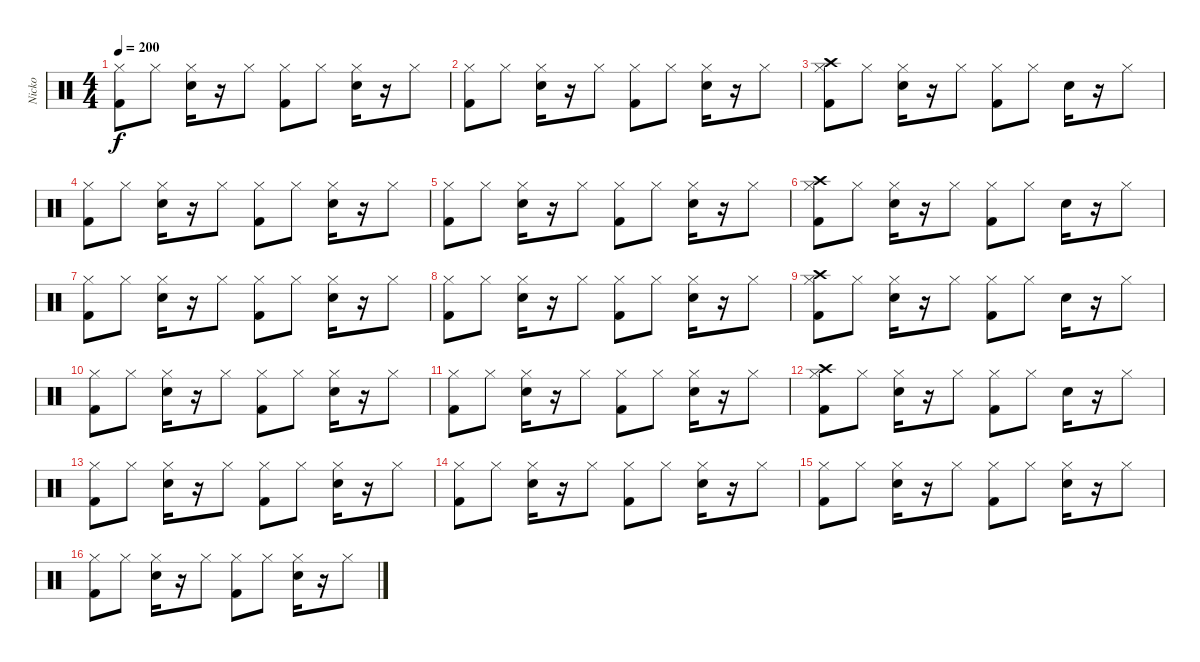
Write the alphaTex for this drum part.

\track ("Nicko" "Nicko") {instrument percussion}
\staff {score}
\articulation defaults
\ts (4 4)
\tempo 200
\clef neutral
\ks c
("Kick (hit) 2" "Hi-Hat (closed)").8{dy f} "Hi-Hat (closed)".8 ("Snare (hit) 2" "Hi-Hat (closed)").16 r.16 "Hi-Hat (closed)".8 ("Kick (hit) 2" "Hi-Hat (closed)").8 "Hi-Hat (closed)".8 ("Snare (hit) 2" "Hi-Hat (closed)").16 r.16 "Hi-Hat (closed)".8 |
("Kick (hit) 2" "Hi-Hat (closed)").8 "Hi-Hat (closed)".8 ("Snare (hit) 2" "Hi-Hat (closed)").16 r.16 "Hi-Hat (closed)".8 ("Kick (hit) 2" "Hi-Hat (closed)").8 "Hi-Hat (closed)".8 ("Snare (hit) 2" "Hi-Hat (closed)").16 r.16 "Hi-Hat (closed)".8 |
("Kick (hit) 2" "Hi-Hat (closed)" "Crash high (hit)").8 "Hi-Hat (closed)".8 ("Snare (hit) 2" "Hi-Hat (closed)").16 r.16 "Hi-Hat (closed)".8 ("Kick (hit) 2" "Hi-Hat (closed)").8 "Hi-Hat (closed)".8 "Snare (hit) 2".16 r.16 "Hi-Hat (closed)".8 |
("Kick (hit) 2" "Hi-Hat (closed)").8 "Hi-Hat (closed)".8 ("Snare (hit) 2" "Hi-Hat (closed)").16 r.16 "Hi-Hat (closed)".8 ("Kick (hit) 2" "Hi-Hat (closed)").8 "Hi-Hat (closed)".8 ("Snare (hit) 2" "Hi-Hat (closed)").16 r.16 "Hi-Hat (closed)".8 |
("Kick (hit) 2" "Hi-Hat (closed)").8 "Hi-Hat (closed)".8 ("Snare (hit) 2" "Hi-Hat (closed)").16 r.16 "Hi-Hat (closed)".8 ("Kick (hit) 2" "Hi-Hat (closed)").8 "Hi-Hat (closed)".8 ("Snare (hit) 2" "Hi-Hat (closed)").16 r.16 "Hi-Hat (closed)".8 |
("Kick (hit) 2" "Hi-Hat (closed)" "Crash high (hit)").8 "Hi-Hat (closed)".8 ("Snare (hit) 2" "Hi-Hat (closed)").16 r.16 "Hi-Hat (closed)".8 ("Kick (hit) 2" "Hi-Hat (closed)").8 "Hi-Hat (closed)".8 "Snare (hit) 2".16 r.16 "Hi-Hat (closed)".8 |
("Kick (hit) 2" "Hi-Hat (closed)").8 "Hi-Hat (closed)".8 ("Snare (hit) 2" "Hi-Hat (closed)").16 r.16 "Hi-Hat (closed)".8 ("Kick (hit) 2" "Hi-Hat (closed)").8 "Hi-Hat (closed)".8 ("Snare (hit) 2" "Hi-Hat (closed)").16 r.16 "Hi-Hat (closed)".8 |
("Kick (hit) 2" "Hi-Hat (closed)").8 "Hi-Hat (closed)".8 ("Snare (hit) 2" "Hi-Hat (closed)").16 r.16 "Hi-Hat (closed)".8 ("Kick (hit) 2" "Hi-Hat (closed)").8 "Hi-Hat (closed)".8 ("Snare (hit) 2" "Hi-Hat (closed)").16 r.16 "Hi-Hat (closed)".8 |
("Kick (hit) 2" "Hi-Hat (closed)" "Crash high (hit)").8 "Hi-Hat (closed)".8 ("Snare (hit) 2" "Hi-Hat (closed)").16 r.16 "Hi-Hat (closed)".8 ("Kick (hit) 2" "Hi-Hat (closed)").8 "Hi-Hat (closed)".8 "Snare (hit) 2".16 r.16 "Hi-Hat (closed)".8 |
("Kick (hit) 2" "Hi-Hat (closed)").8 "Hi-Hat (closed)".8 ("Snare (hit) 2" "Hi-Hat (closed)").16 r.16 "Hi-Hat (closed)".8 ("Kick (hit) 2" "Hi-Hat (closed)").8 "Hi-Hat (closed)".8 ("Snare (hit) 2" "Hi-Hat (closed)").16 r.16 "Hi-Hat (closed)".8 |
("Kick (hit) 2" "Hi-Hat (closed)").8 "Hi-Hat (closed)".8 ("Snare (hit) 2" "Hi-Hat (closed)").16 r.16 "Hi-Hat (closed)".8 ("Kick (hit) 2" "Hi-Hat (closed)").8 "Hi-Hat (closed)".8 ("Snare (hit) 2" "Hi-Hat (closed)").16 r.16 "Hi-Hat (closed)".8 |
("Kick (hit) 2" "Hi-Hat (closed)" "Crash high (hit)").8 "Hi-Hat (closed)".8 ("Snare (hit) 2" "Hi-Hat (closed)").16 r.16 "Hi-Hat (closed)".8 ("Kick (hit) 2" "Hi-Hat (closed)").8 "Hi-Hat (closed)".8 "Snare (hit) 2".16 r.16 "Hi-Hat (closed)".8 |
("Kick (hit) 2" "Hi-Hat (closed)").8 "Hi-Hat (closed)".8 ("Snare (hit) 2" "Hi-Hat (closed)").16 r.16 "Hi-Hat (closed)".8 ("Kick (hit) 2" "Hi-Hat (closed)").8 "Hi-Hat (closed)".8 ("Snare (hit) 2" "Hi-Hat (closed)").16 r.16 "Hi-Hat (closed)".8 |
("Kick (hit) 2" "Hi-Hat (closed)").8 "Hi-Hat (closed)".8 ("Snare (hit) 2" "Hi-Hat (closed)").16 r.16 "Hi-Hat (closed)".8 ("Kick (hit) 2" "Hi-Hat (closed)").8 "Hi-Hat (closed)".8 ("Snare (hit) 2" "Hi-Hat (closed)").16 r.16 "Hi-Hat (closed)".8 |
("Kick (hit) 2" "Hi-Hat (closed)").8 "Hi-Hat (closed)".8 ("Snare (hit) 2" "Hi-Hat (closed)").16 r.16 "Hi-Hat (closed)".8 ("Kick (hit) 2" "Hi-Hat (closed)").8 "Hi-Hat (closed)".8 ("Snare (hit) 2" "Hi-Hat (closed)").16 r.16 "Hi-Hat (closed)".8 |
("Kick (hit) 2" "Hi-Hat (closed)").8 "Hi-Hat (closed)".8 ("Snare (hit) 2" "Hi-Hat (closed)").16 r.16 "Hi-Hat (closed)".8 ("Kick (hit) 2" "Hi-Hat (closed)").8 "Hi-Hat (closed)".8 ("Snare (hit) 2" "Hi-Hat (closed)").16 r.16 "Hi-Hat (closed)".8
